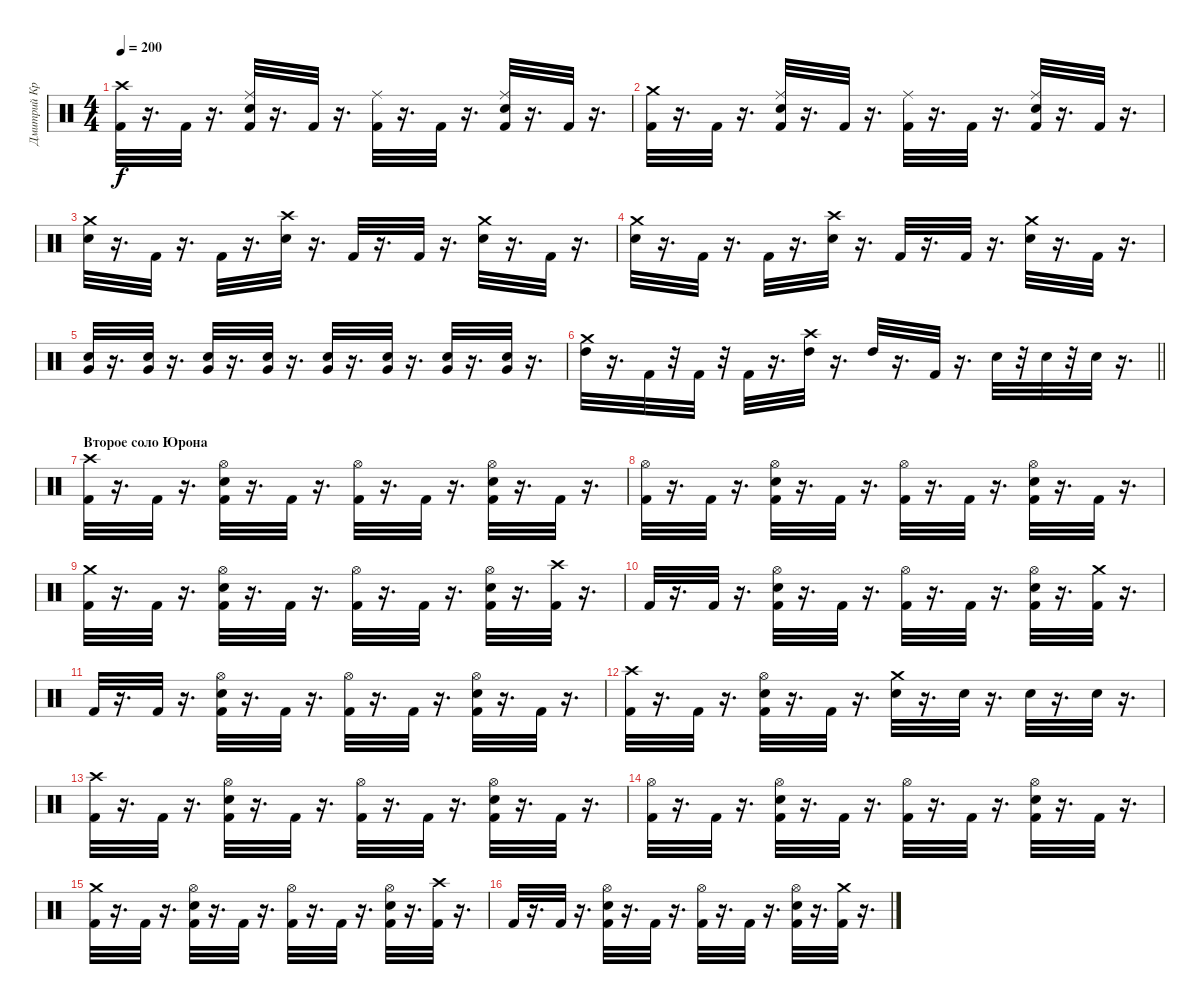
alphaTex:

\track ("Дмитрий Кривенков" "Дмитрий Кр") {instrument percussion}
\staff {score}
\articulation defaults
\ts (4 4)
\tempo 200
\clef neutral
\ks c
("Crash high (hit)" "Kick (hit) 2").32{dy f} r.16{d} "Kick (hit) 2".32 r.16{d} ("Ride (middle)" "Electric Snare (hit)" "Kick (hit) 2").32 r.16{d} "Kick (hit) 2".32 r.16{d} ("Ride (middle)" "Kick (hit) 2").32 r.16{d} "Kick (hit) 2".32 r.16{d} ("Ride (middle)" "Kick (hit) 2" "Electric Snare (hit)").32 r.16{d} "Kick (hit) 2".32 r.16{d} |
("Crash medium (hit)" "Kick (hit) 2").32 r.16{d} "Kick (hit) 2".32 r.16{d} ("Electric Snare (hit)" "Kick (hit) 2" "Ride (middle)").32 r.16{d} "Kick (hit) 2".32 r.16{d} ("Ride (middle)" "Kick (hit) 2").32 r.16{d} "Kick (hit) 2".32 r.16{d} ("Ride (middle)" "Kick (hit) 2" "Electric Snare (hit)").32 r.16{d} "Kick (hit) 2".32 r.16{d} |
("Crash medium (hit)" "Electric Snare (hit)").32 r.16{d} "Kick (hit) 2".32 r.16{d} "Kick (hit) 2".32 r.16{d} ("Electric Snare (hit)" "Crash high (hit)").32 r.16{d} "Kick (hit) 2".32 r.16{d} "Kick (hit) 2".32 r.16{d} ("Electric Snare (hit)" "Crash medium (hit)").32 r.16{d} "Kick (hit) 2".32 r.16{d} |
("Electric Snare (hit)" "Crash medium (hit)").32 r.16{d} "Kick (hit) 2".32 r.16{d} "Kick (hit) 2".32 r.16{d} ("Electric Snare (hit)" "Crash high (hit)").32 r.16{d} "Kick (hit) 2".32 r.16{d} "Kick (hit) 2".32 r.16{d} ("Electric Snare (hit)" "Crash medium (hit)").32 r.16{d} "Kick (hit) 2".32 r.16{d} |
("Electric Snare (hit)" "Very Low Tom (hit)").32 r.16{d} ("Electric Snare (hit)" "Very Low Tom (hit)").32 r.16{d} ("Electric Snare (hit)" "Very Low Tom (hit)").32 r.16{d} ("Electric Snare (hit)" "Very Low Tom (hit)").32 r.16{d} ("Electric Snare (hit)" "Very Low Tom (hit)").32 r.16{d} ("Electric Snare (hit)" "Very Low Tom (hit)").32 r.16{d} ("Electric Snare (hit)" "Very Low Tom (hit)").32 r.16{d} ("Electric Snare (hit)" "Very Low Tom (hit)").32 r.16{d} |
\barLineRight lightlight
("High Tom (hit)" "Crash medium (hit)").32 r.16{d} "Kick (hit) 2".32 r.32 "Kick (hit) 2".32 r.32 "Kick (hit) 2".32 r.16{d} ("Crash high (hit)" "High Tom (hit)").32 r.16{d} "High Tom (hit)".32 r.16{d} "Kick (hit) 2".32 r.16{d} "Electric Snare (hit)".32 r.32 "Electric Snare (hit)".32 r.32 "Electric Snare (hit)".32 r.16{d} |
\section ("" "Второе соло Юрона")
("Kick (hit) 2" "Crash high (hit)").32 r.16{d} "Kick (hit) 2".32 r.16{d} ("Hi-Hat (open)" "Kick (hit) 2" "Electric Snare (hit)").32 r.16{d} "Kick (hit) 2".32 r.16{d} ("Hi-Hat (open)" "Kick (hit) 2").32 r.16{d} "Kick (hit) 2".32 r.16{d} ("Hi-Hat (open)" "Kick (hit) 2" "Electric Snare (hit)").32 r.16{d} "Kick (hit) 2".32 r.16{d} |
("Hi-Hat (open)" "Kick (hit) 2").32 r.16{d} "Kick (hit) 2".32 r.16{d} ("Hi-Hat (open)" "Electric Snare (hit)" "Kick (hit) 2").32 r.16{d} "Kick (hit) 2".32 r.16{d} ("Hi-Hat (open)" "Kick (hit) 2").32 r.16{d} "Kick (hit) 2".32 r.16{d} ("Hi-Hat (open)" "Electric Snare (hit)" "Kick (hit) 2").32 r.16{d} "Kick (hit) 2".32 r.16{d} |
("Kick (hit) 2" "Crash medium (hit)").32 r.16{d} "Kick (hit) 2".32 r.16{d} ("Kick (hit) 2" "Electric Snare (hit)" "Hi-Hat (open)").32 r.16{d} "Kick (hit) 2".32 r.16{d} ("Kick (hit) 2" "Hi-Hat (open)").32 r.16{d} "Kick (hit) 2".32 r.16{d} ("Kick (hit) 2" "Electric Snare (hit)" "Hi-Hat (open)").32 r.16{d} ("Kick (hit) 2" "Crash high (hit)").32 r.16{d} |
"Kick (hit) 2".32 r.16{d} "Kick (hit) 2".32 r.16{d} ("Hi-Hat (open)" "Kick (hit) 2" "Electric Snare (hit)").32 r.16{d} "Kick (hit) 2".32 r.16{d} ("Hi-Hat (open)" "Kick (hit) 2").32 r.16{d} "Kick (hit) 2".32 r.16{d} ("Hi-Hat (open)" "Electric Snare (hit)" "Kick (hit) 2").32 r.16{d} ("Crash medium (hit)" "Kick (hit) 2").32 r.16{d} |
"Kick (hit) 2".32 r.16{d} "Kick (hit) 2".32 r.16{d} ("Hi-Hat (open)" "Kick (hit) 2" "Electric Snare (hit)").32 r.16{d} "Kick (hit) 2".32 r.16{d} ("Hi-Hat (open)" "Kick (hit) 2").32 r.16{d} "Kick (hit) 2".32 r.16{d} ("Hi-Hat (open)" "Electric Snare (hit)" "Kick (hit) 2").32 r.16{d} "Kick (hit) 2".32 r.16{d} |
("Crash high (hit)" "Kick (hit) 2").32 r.16{d} "Kick (hit) 2".32 r.16{d} ("Electric Snare (hit)" "Kick (hit) 2" "Hi-Hat (open)").32 r.16{d} "Kick (hit) 2".32 r.16{d} ("Electric Snare (hit)" "Crash medium (hit)").32 r.16{d} "Electric Snare (hit)".32 r.16{d} "Electric Snare (hit)".32 r.16{d} "Electric Snare (hit)".32 r.16{d} |
("Kick (hit) 2" "Crash high (hit)").32 r.16{d} "Kick (hit) 2".32 r.16{d} ("Hi-Hat (open)" "Kick (hit) 2" "Electric Snare (hit)").32 r.16{d} "Kick (hit) 2".32 r.16{d} ("Hi-Hat (open)" "Kick (hit) 2").32 r.16{d} "Kick (hit) 2".32 r.16{d} ("Hi-Hat (open)" "Kick (hit) 2" "Electric Snare (hit)").32 r.16{d} "Kick (hit) 2".32 r.16{d} |
("Hi-Hat (open)" "Kick (hit) 2").32 r.16{d} "Kick (hit) 2".32 r.16{d} ("Hi-Hat (open)" "Electric Snare (hit)" "Kick (hit) 2").32 r.16{d} "Kick (hit) 2".32 r.16{d} ("Hi-Hat (open)" "Kick (hit) 2").32 r.16{d} "Kick (hit) 2".32 r.16{d} ("Hi-Hat (open)" "Electric Snare (hit)" "Kick (hit) 2").32 r.16{d} "Kick (hit) 2".32 r.16{d} |
("Kick (hit) 2" "Crash medium (hit)").32 r.16{d} "Kick (hit) 2".32 r.16{d} ("Kick (hit) 2" "Electric Snare (hit)" "Hi-Hat (open)").32 r.16{d} "Kick (hit) 2".32 r.16{d} ("Kick (hit) 2" "Hi-Hat (open)").32 r.16{d} "Kick (hit) 2".32 r.16{d} ("Kick (hit) 2" "Electric Snare (hit)" "Hi-Hat (open)").32 r.16{d} ("Kick (hit) 2" "Crash high (hit)").32 r.16{d} |
"Kick (hit) 2".32 r.16{d} "Kick (hit) 2".32 r.16{d} ("Hi-Hat (open)" "Kick (hit) 2" "Electric Snare (hit)").32 r.16{d} "Kick (hit) 2".32 r.16{d} ("Hi-Hat (open)" "Kick (hit) 2").32 r.16{d} "Kick (hit) 2".32 r.16{d} ("Hi-Hat (open)" "Electric Snare (hit)" "Kick (hit) 2").32 r.16{d} ("Crash medium (hit)" "Kick (hit) 2").32 r.16{d}
